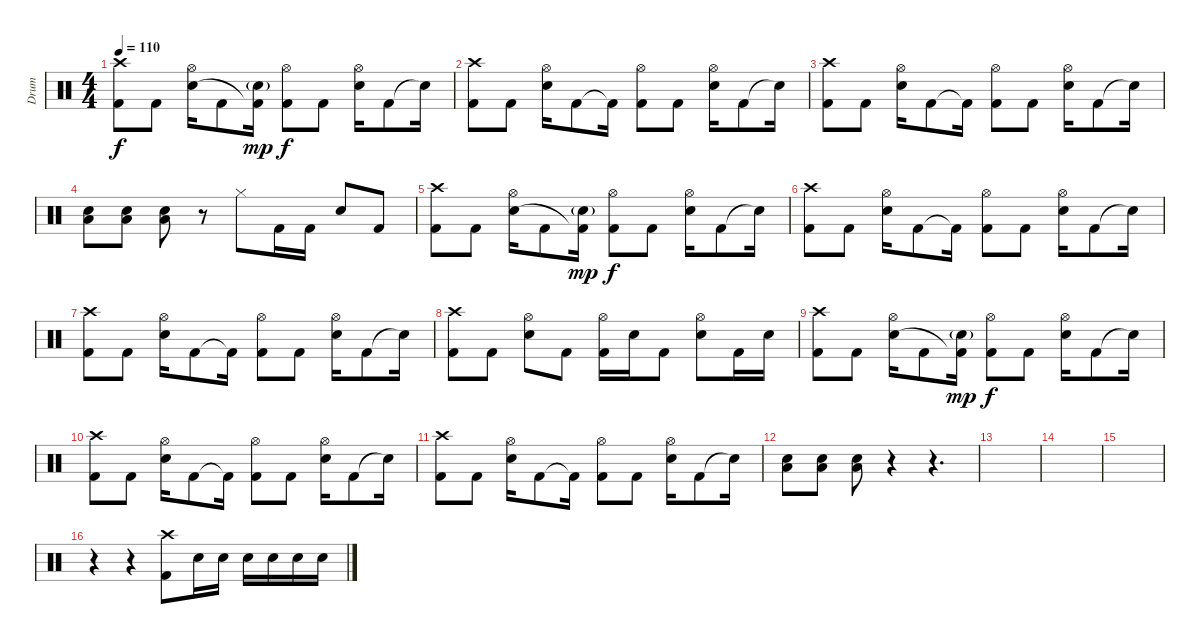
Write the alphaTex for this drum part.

\track ("Drum" "Drum") {instrument percussion}
\staff {score}
\articulation defaults
\ts (4 4)
\tempo 110
\clef neutral
\ks c
("Crash high (hit)" "Kick (hit) 2").8{dy f volume 12} "Kick (hit) 2".8 ("Hi-Hat (open)" "Electric Snare (hit)").16 "Kick (hit) 2".8 ("Electric Snare (hit)"{g} "Kick (hit) 2"{t}).16{dy mp} ("Hi-Hat (open)" "Kick (hit) 2").8{dy f} "Kick (hit) 2".8 ("Hi-Hat (open)" "Electric Snare (hit)").16 "Kick (hit) 2".8 "Snare (hit)"{t}.16 |
("Crash high (hit)" "Kick (hit) 2").8 "Kick (hit) 2".8 ("Hi-Hat (open)" "Electric Snare (hit)").16 "Kick (hit) 2".8 "Kick (hit) 2"{t}.16 ("Hi-Hat (open)" "Kick (hit) 2").8 "Kick (hit) 2".8 ("Hi-Hat (open)" "Electric Snare (hit)").16 "Kick (hit) 2".8 "Snare (hit)"{t}.16 |
("Crash high (hit)" "Kick (hit) 2").8 "Kick (hit) 2".8 ("Hi-Hat (open)" "Electric Snare (hit)").16 "Kick (hit) 2".8 "Kick (hit) 2"{t}.16 ("Hi-Hat (open)" "Kick (hit) 2").8 "Kick (hit) 2".8 ("Hi-Hat (open)" "Electric Snare (hit)").16 "Kick (hit) 2".8 "Snare (hit)"{t}.16 |
("Low Tom (hit)" "Electric Snare (hit)").8 ("Low Tom (hit)" "Electric Snare (hit)").8 ("Low Tom (hit)" "Electric Snare (hit)").8 r.8 "Hi-Hat (closed)".8 "Kick (hit) 2".16 "Kick (hit) 2".16 "Electric Snare (hit)".8 "Kick (hit) 2".8 |
("Crash high (hit)" "Kick (hit) 2").8{volume 10} "Kick (hit) 2".8 ("Hi-Hat (open)" "Electric Snare (hit)").16 "Kick (hit) 2".8 ("Electric Snare (hit)"{g} "Kick (hit) 2"{t}).16{dy mp} ("Hi-Hat (open)" "Kick (hit) 2").8{dy f} "Kick (hit) 2".8 ("Hi-Hat (open)" "Electric Snare (hit)").16 "Kick (hit) 2".8 "Snare (hit)"{t}.16 |
("Crash high (hit)" "Kick (hit) 2").8 "Kick (hit) 2".8 ("Hi-Hat (open)" "Electric Snare (hit)").16 "Kick (hit) 2".8 "Kick (hit) 2"{t}.16 ("Hi-Hat (open)" "Kick (hit) 2").8 "Kick (hit) 2".8 ("Hi-Hat (open)" "Electric Snare (hit)").16 "Kick (hit) 2".8 "Snare (hit)"{t}.16 |
("Crash high (hit)" "Kick (hit) 2").8 "Kick (hit) 2".8 ("Hi-Hat (open)" "Electric Snare (hit)").16 "Kick (hit) 2".8 "Kick (hit) 2"{t}.16 ("Hi-Hat (open)" "Kick (hit) 2").8 "Kick (hit) 2".8 ("Hi-Hat (open)" "Electric Snare (hit)").16 "Kick (hit) 2".8 "Snare (hit)"{t}.16 |
("Crash high (hit)" "Kick (hit) 2").8 "Kick (hit) 2".8 ("Hi-Hat (open)" "Electric Snare (hit)").8 "Kick (hit) 2".8 ("Hi-Hat (open)" "Kick (hit) 2").16 "Electric Snare (hit)".16 "Kick (hit) 2".8 ("Hi-Hat (open)" "Electric Snare (hit)").8 "Kick (hit) 2".16 "Electric Snare (hit)".16 |
("Crash high (hit)" "Kick (hit) 2").8{volume 12} "Kick (hit) 2".8 ("Hi-Hat (open)" "Electric Snare (hit)").16 "Kick (hit) 2".8 ("Electric Snare (hit)"{g} "Kick (hit) 2"{t}).16{dy mp} ("Hi-Hat (open)" "Kick (hit) 2").8{dy f} "Kick (hit) 2".8 ("Hi-Hat (open)" "Electric Snare (hit)").16 "Kick (hit) 2".8 "Snare (hit)"{t}.16 |
("Crash high (hit)" "Kick (hit) 2").8 "Kick (hit) 2".8 ("Hi-Hat (open)" "Electric Snare (hit)").16 "Kick (hit) 2".8 "Kick (hit) 2"{t}.16 ("Hi-Hat (open)" "Kick (hit) 2").8 "Kick (hit) 2".8 ("Hi-Hat (open)" "Electric Snare (hit)").16 "Kick (hit) 2".8 "Snare (hit)"{t}.16 |
("Crash high (hit)" "Kick (hit) 2").8 "Kick (hit) 2".8 ("Hi-Hat (open)" "Electric Snare (hit)").16 "Kick (hit) 2".8 "Kick (hit) 2"{t}.16 ("Hi-Hat (open)" "Kick (hit) 2").8 "Kick (hit) 2".8 ("Hi-Hat (open)" "Electric Snare (hit)").16 "Kick (hit) 2".8 "Snare (hit)"{t}.16 |
("Low Tom (hit)" "Electric Snare (hit)").8 ("Low Tom (hit)" "Electric Snare (hit)").8 ("Low Tom (hit)" "Electric Snare (hit)").8 r.4 r.4{d} |
|
|
|
r.4 r.4 ("Crash high (hit)" "Kick (hit) 2").8 "Electric Snare (hit)".16 "Electric Snare (hit)".16 "Electric Snare (hit)".16 "Electric Snare (hit)".16 "Electric Snare (hit)".16 "Electric Snare (hit)".16
